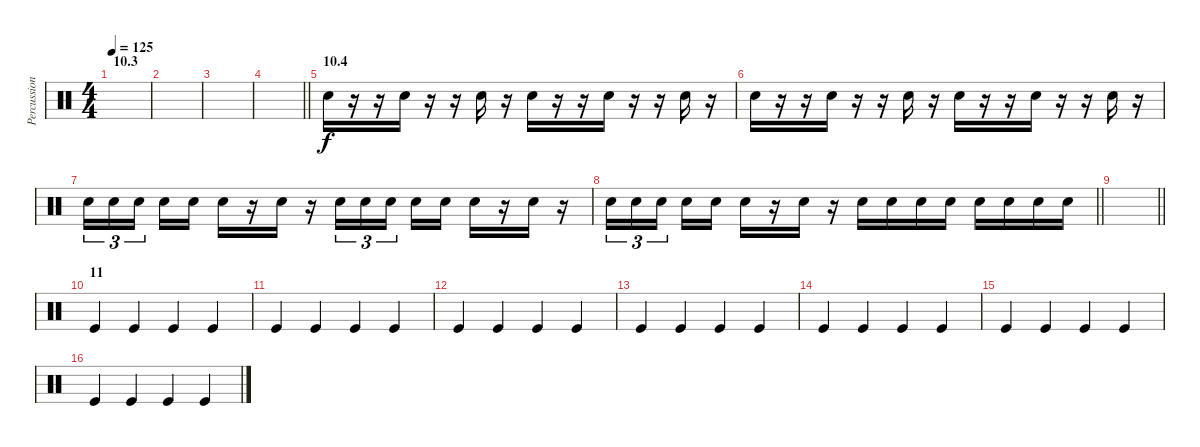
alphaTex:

\track ("Percussion" "Percussion") {instrument percussion}
\staff {score}
\articulation defaults
\ts (4 4)
\section ("" "10.3")
\tempo 125
\clef neutral
\ks c
|
|
|
\barLineRight lightlight
|
\section ("" "10.4")
"Snare (hit) 2".16 r.16 r.16 "Snare (hit) 2".16 r.16 r.16 "Snare (hit) 2".16 r.16 "Snare (hit) 2".16 r.16 r.16 "Snare (hit) 2".16 r.16 r.16 "Snare (hit) 2".16 r.16 |
"Snare (hit) 2".16 r.16 r.16 "Snare (hit) 2".16 r.16 r.16 "Snare (hit) 2".16 r.16 "Snare (hit) 2".16 r.16 r.16 "Snare (hit) 2".16 r.16 r.16 "Snare (hit) 2".16 r.16 |
"Snare (hit) 2".16{tu (3 2)} "Snare (hit) 2".16{tu (3 2)} "Snare (hit) 2".16{tu (3 2) beam splitsecondary} "Snare (hit) 2".16 "Snare (hit) 2".16 "Snare (hit) 2".16 r.16 "Snare (hit) 2".16 r.16 "Snare (hit) 2".16{tu (3 2)} "Snare (hit) 2".16{tu (3 2)} "Snare (hit) 2".16{tu (3 2) beam splitsecondary} "Snare (hit) 2".16 "Snare (hit) 2".16 "Snare (hit) 2".16 r.16 "Snare (hit) 2".16 r.16 |
\barLineRight lightlight "Snare (hit) 2".16{tu (3 2)} "Snare (hit) 2".16{tu (3 2)} "Snare (hit) 2".16{tu (3 2) beam splitsecondary} "Snare (hit) 2".16 "Snare (hit) 2".16 "Snare (hit) 2".16
r.16 "Snare (hit) 2".16 r.16 "Snare (hit) 2".16 "Snare (hit) 2".16 "Snare (hit) 2".16 "Snare (hit) 2".16 "Snare (hit) 2".16 "Snare (hit) 2".16 "Snare (hit) 2".16 "Snare (hit) 2".16 |
\barLineRight lightlight
|
\section ("" "11")
"Kick (hit)".4 "Kick (hit)".4 "Kick (hit)".4 "Kick (hit)".4 |
"Kick (hit)".4 "Kick (hit)".4 "Kick (hit)".4 "Kick (hit)".4 |
"Kick (hit)".4 "Kick (hit)".4 "Kick (hit)".4 "Kick (hit)".4 |
"Kick (hit)".4 "Kick (hit)".4 "Kick (hit)".4 "Kick (hit)".4 |
"Kick (hit)".4 "Kick (hit)".4 "Kick (hit)".4 "Kick (hit)".4 |
"Kick (hit)".4 "Kick (hit)".4 "Kick (hit)".4 "Kick (hit)".4 |
"Kick (hit)".4 "Kick (hit)".4 "Kick (hit)".4 "Kick (hit)".4
